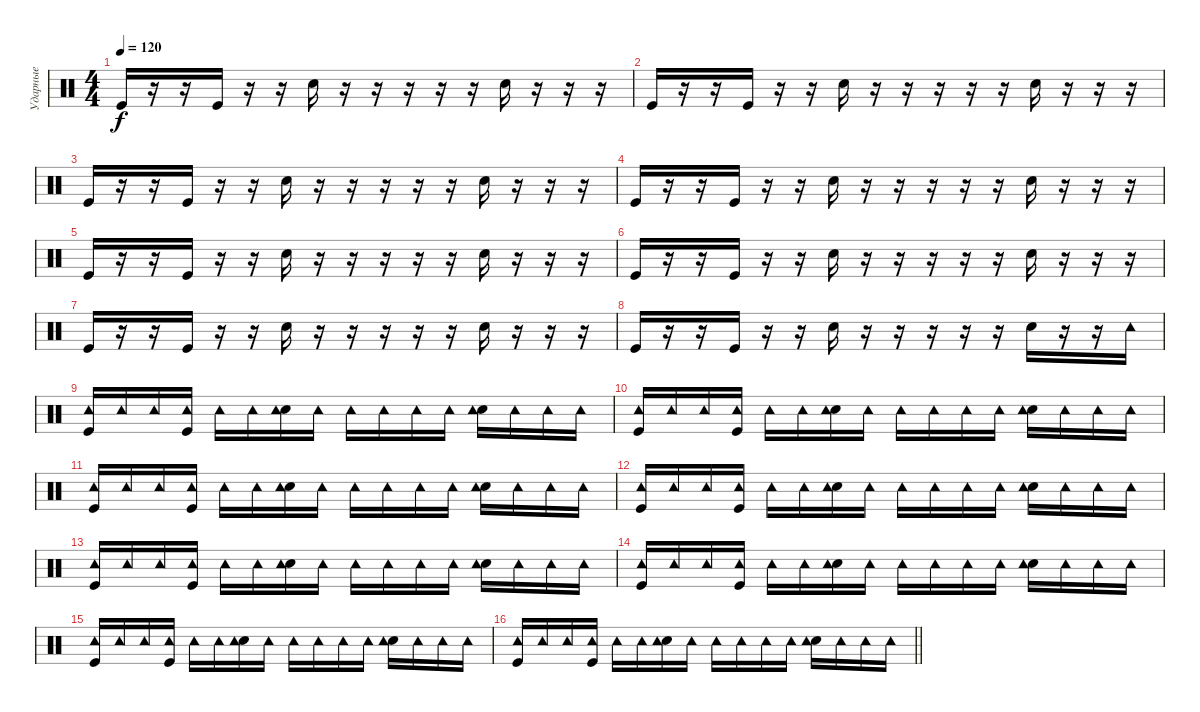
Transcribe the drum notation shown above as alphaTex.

\track ("Ударные" "Ударные") {instrument percussion}
\staff {score}
\articulation defaults
\ts (4 4)
\tempo 120
\clef neutral
\ks c "Kick (hit)".16{dy f}
r.16 r.16 "Kick (hit)".16 r.16 r.16 "Electric Snare (hit)".16 r.16 r.16 r.16 r.16 r.16 "Electric Snare (hit)".16 r.16 r.16 r.16 |
"Kick (hit)".16 r.16 r.16 "Kick (hit)".16 r.16 r.16 "Electric Snare (hit)".16 r.16 r.16 r.16 r.16 r.16 "Electric Snare (hit)".16 r.16 r.16 r.16 |
"Kick (hit)".16 r.16 r.16 "Kick (hit)".16 r.16 r.16 "Electric Snare (hit)".16 r.16 r.16 r.16 r.16 r.16 "Electric Snare (hit)".16 r.16 r.16 r.16 |
"Kick (hit)".16 r.16 r.16 "Kick (hit)".16 r.16 r.16 "Electric Snare (hit)".16 r.16 r.16 r.16 r.16 r.16 "Electric Snare (hit)".16 r.16 r.16 r.16 |
"Kick (hit)".16 r.16 r.16 "Kick (hit)".16 r.16 r.16 "Electric Snare (hit)".16 r.16 r.16 r.16 r.16 r.16 "Electric Snare (hit)".16 r.16 r.16 r.16 |
"Kick (hit)".16 r.16 r.16 "Kick (hit)".16 r.16 r.16 "Electric Snare (hit)".16 r.16 r.16 r.16 r.16 r.16 "Electric Snare (hit)".16 r.16 r.16 r.16 |
"Kick (hit)".16 r.16 r.16 "Kick (hit)".16 r.16 r.16 "Electric Snare (hit)".16 r.16 r.16 r.16 r.16 r.16 "Electric Snare (hit)".16 r.16 r.16 r.16 |
"Kick (hit)".16 r.16 r.16 "Kick (hit)".16 r.16 r.16 "Electric Snare (hit)".16 r.16 r.16 r.16 r.16 r.16 "Electric Snare (hit)".16 r.16 r.16 "Tambourine (hit)".16 |
("Kick (hit)" "Tambourine (hit)").16 "Tambourine (hit)".16 "Tambourine (hit)".16 ("Kick (hit)" "Tambourine (hit)").16 "Tambourine (hit)".16 "Tambourine (hit)".16 ("Electric Snare (hit)" "Tambourine (hit)").16 "Tambourine (hit)".16 "Tambourine (hit)".16 "Tambourine (hit)".16 "Tambourine (hit)".16 "Tambourine (hit)".16 ("Electric Snare (hit)" "Tambourine (hit)").16 "Tambourine (hit)".16 "Tambourine (hit)".16 "Tambourine (hit)".16 |
("Kick (hit)" "Tambourine (hit)").16 "Tambourine (hit)".16 "Tambourine (hit)".16 ("Kick (hit)" "Tambourine (hit)").16 "Tambourine (hit)".16 "Tambourine (hit)".16 ("Electric Snare (hit)" "Tambourine (hit)").16 "Tambourine (hit)".16 "Tambourine (hit)".16 "Tambourine (hit)".16 "Tambourine (hit)".16 "Tambourine (hit)".16 ("Electric Snare (hit)" "Tambourine (hit)").16 "Tambourine (hit)".16 "Tambourine (hit)".16 "Tambourine (hit)".16 |
("Kick (hit)" "Tambourine (hit)").16 "Tambourine (hit)".16 "Tambourine (hit)".16 ("Kick (hit)" "Tambourine (hit)").16 "Tambourine (hit)".16 "Tambourine (hit)".16 ("Electric Snare (hit)" "Tambourine (hit)").16 "Tambourine (hit)".16 "Tambourine (hit)".16 "Tambourine (hit)".16 "Tambourine (hit)".16 "Tambourine (hit)".16 ("Electric Snare (hit)" "Tambourine (hit)").16 "Tambourine (hit)".16 "Tambourine (hit)".16 "Tambourine (hit)".16 |
("Kick (hit)" "Tambourine (hit)").16 "Tambourine (hit)".16 "Tambourine (hit)".16 ("Kick (hit)" "Tambourine (hit)").16 "Tambourine (hit)".16 "Tambourine (hit)".16 ("Electric Snare (hit)" "Tambourine (hit)").16 "Tambourine (hit)".16 "Tambourine (hit)".16 "Tambourine (hit)".16 "Tambourine (hit)".16 "Tambourine (hit)".16 ("Electric Snare (hit)" "Tambourine (hit)").16 "Tambourine (hit)".16 "Tambourine (hit)".16 "Tambourine (hit)".16 |
("Kick (hit)" "Tambourine (hit)").16 "Tambourine (hit)".16 "Tambourine (hit)".16 ("Kick (hit)" "Tambourine (hit)").16 "Tambourine (hit)".16 "Tambourine (hit)".16 ("Electric Snare (hit)" "Tambourine (hit)").16 "Tambourine (hit)".16 "Tambourine (hit)".16 "Tambourine (hit)".16 "Tambourine (hit)".16 "Tambourine (hit)".16 ("Electric Snare (hit)" "Tambourine (hit)").16 "Tambourine (hit)".16 "Tambourine (hit)".16 "Tambourine (hit)".16 |
("Kick (hit)" "Tambourine (hit)").16 "Tambourine (hit)".16 "Tambourine (hit)".16 ("Kick (hit)" "Tambourine (hit)").16 "Tambourine (hit)".16 "Tambourine (hit)".16 ("Electric Snare (hit)" "Tambourine (hit)").16 "Tambourine (hit)".16 "Tambourine (hit)".16 "Tambourine (hit)".16 "Tambourine (hit)".16 "Tambourine (hit)".16 ("Electric Snare (hit)" "Tambourine (hit)").16 "Tambourine (hit)".16 "Tambourine (hit)".16 "Tambourine (hit)".16 |
("Kick (hit)" "Tambourine (hit)").16 "Tambourine (hit)".16 "Tambourine (hit)".16 ("Kick (hit)" "Tambourine (hit)").16 "Tambourine (hit)".16 "Tambourine (hit)".16 ("Electric Snare (hit)" "Tambourine (hit)").16 "Tambourine (hit)".16 "Tambourine (hit)".16 "Tambourine (hit)".16 "Tambourine (hit)".16 "Tambourine (hit)".16 ("Electric Snare (hit)" "Tambourine (hit)").16 "Tambourine (hit)".16 "Tambourine (hit)".16 "Tambourine (hit)".16 |
\barLineRight lightlight
("Kick (hit)" "Tambourine (hit)").16 "Tambourine (hit)".16 "Tambourine (hit)".16 ("Kick (hit)" "Tambourine (hit)").16 "Tambourine (hit)".16 "Tambourine (hit)".16 ("Electric Snare (hit)" "Tambourine (hit)").16 "Tambourine (hit)".16 "Tambourine (hit)".16 "Tambourine (hit)".16 "Tambourine (hit)".16 "Tambourine (hit)".16 ("Electric Snare (hit)" "Tambourine (hit)").16 "Tambourine (hit)".16 "Tambourine (hit)".16 "Tambourine (hit)".16
